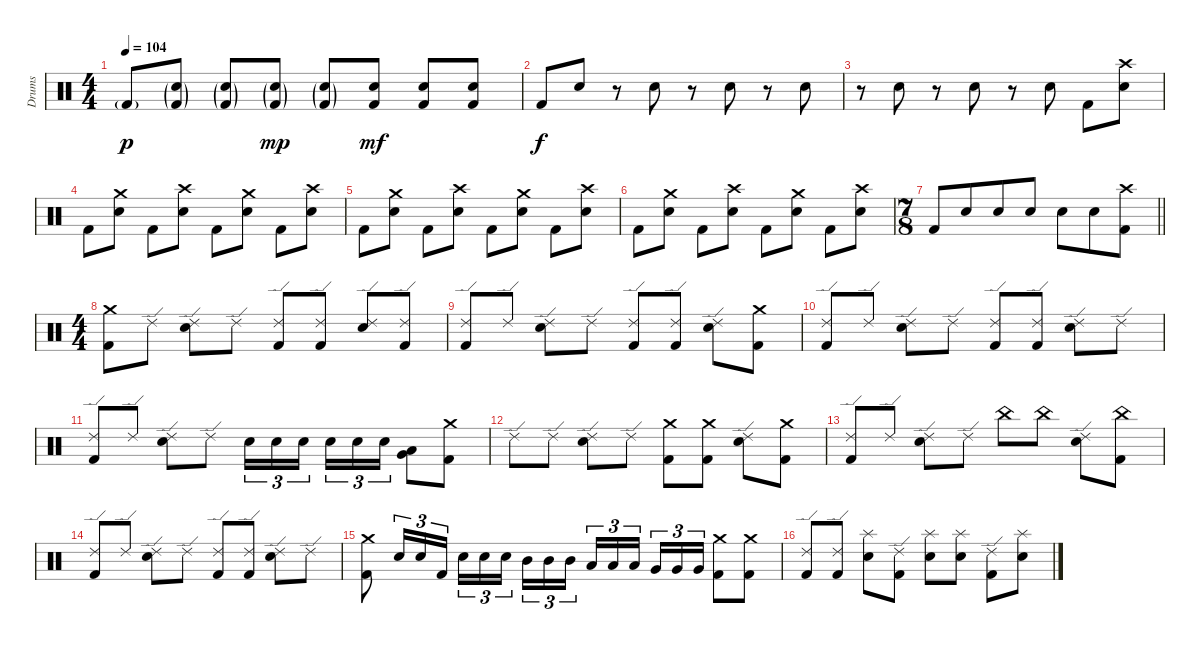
\track ("Drums" "Drums") {instrument percussion}
\staff {score}
\articulation defaults
\ts (4 4)
\tempo 104
\clef neutral
\ks c "Kick (hit) 2"{g}.8{dy p}
("Snare (hit) 2"{g} "Kick (hit) 2"{g}).8 ("Snare (hit) 2"{g} "Kick (hit) 2"{g}).8 ("Snare (hit) 2"{g} "Kick (hit) 2"{g}).8{dy mp} ("Snare (hit) 2"{g} "Kick (hit) 2"{g}).8 ("Snare (hit) 2" "Kick (hit) 2").8{dy mf} ("Snare (hit) 2" "Kick (hit) 2").8 ("Snare (hit) 2" "Kick (hit) 2").8 |
"Kick (hit) 2".8{dy f} "Snare (hit) 2".8 r.8 "Snare (hit) 2".8 r.8 "Snare (hit) 2".8 r.8 "Snare (hit) 2".8 |
r.8 "Snare (hit) 2".8 r.8 "Snare (hit) 2".8 r.8 "Snare (hit) 2".8 "Kick (hit) 2".8 ("Crash high (hit)" "Snare (hit) 2").8 |
"Kick (hit) 2".8 ("Crash medium (hit)" "Snare (hit) 2").8 "Kick (hit) 2".8 ("Crash high (hit)" "Snare (hit) 2").8 "Kick (hit) 2".8 ("Crash medium (hit)" "Snare (hit) 2").8 "Kick (hit) 2".8 ("Crash high (hit)" "Snare (hit) 2").8 |
"Kick (hit) 2".8 ("Crash medium (hit)" "Snare (hit) 2").8 "Kick (hit) 2".8 ("Crash high (hit)" "Snare (hit) 2").8 "Kick (hit) 2".8 ("Crash medium (hit)" "Snare (hit) 2").8 "Kick (hit) 2".8 ("Crash high (hit)" "Snare (hit) 2").8 |
"Kick (hit) 2".8 ("Crash medium (hit)" "Snare (hit) 2").8 "Kick (hit) 2".8 ("Crash high (hit)" "Snare (hit) 2").8 "Kick (hit) 2".8 ("Crash medium (hit)" "Snare (hit) 2").8 "Kick (hit) 2".8 ("Crash high (hit)" "Snare (hit) 2").8 |
\ts (7 8)
\barLineRight lightlight "Kick (hit) 2".8 "Snare (hit) 2".8 "Snare (hit) 2".8 "Snare (hit) 2".8 "Snare (hit) 2".8 "Snare (hit) 2".8
("Crash high (hit)" "Kick (hit) 2").8 |
\ts (4 4)
\section ("" "")
("Crash medium (hit)" "Kick (hit) 2").8 "Ride (edge) 2".8 ("Ride (edge) 2" "Snare (hit) 2").8 "Ride (edge) 2".8 ("Ride (edge) 2" "Kick (hit) 2").8 ("Ride (edge) 2" "Kick (hit) 2").8 ("Ride (edge) 2" "Snare (hit) 2").8 ("Ride (edge) 2" "Kick (hit) 2").8 |
("Ride (edge) 2" "Kick (hit) 2").8 "Ride (edge) 2".8 ("Ride (edge) 2" "Snare (hit) 2").8 "Ride (edge) 2".8 ("Ride (edge) 2" "Kick (hit) 2").8 ("Ride (edge) 2" "Kick (hit) 2").8 ("Ride (edge) 2" "Snare (hit) 2").8 ("Crash medium (hit)" "Kick (hit) 2").8 |
("Ride (edge) 2" "Kick (hit) 2").8 "Ride (edge) 2".8 ("Ride (edge) 2" "Snare (hit) 2").8 "Ride (edge) 2".8 ("Ride (edge) 2" "Kick (hit) 2").8 ("Ride (edge) 2" "Kick (hit) 2").8 ("Ride (edge) 2" "Snare (hit) 2").8 "Ride (edge) 2".8 |
("Ride (edge) 2" "Kick (hit) 2").8 "Ride (edge) 2".8 ("Ride (edge) 2" "Snare (hit) 2").8 "Ride (edge) 2".8 "Snare (hit) 2".16{tu (3 2)} "Snare (hit) 2".16{tu (3 2)} "Snare (hit) 2".16{tu (3 2) beam splitsecondary} "Snare (hit) 2".16{tu (3 2)} "Snare (hit) 2".16{tu (3 2)} "Snare (hit) 2".16{tu (3 2)} ("Low Tom (hit)" "Very Low Tom (hit)").8 ("Crash medium (hit)" "Kick (hit) 2").8 |
"Ride (edge) 2".8 "Ride (edge) 2".8 ("Ride (edge) 2" "Snare (hit) 2").8 "Ride (edge) 2".8 ("Crash medium (hit)" "Kick (hit) 2").8 ("Crash medium (hit)" "Kick (hit) 2").8 ("Ride (edge) 2" "Snare (hit) 2").8 ("Crash medium (hit)" "Kick (hit) 2").8 |
("Ride (edge) 2" "Kick (hit) 2").8 "Ride (edge) 2".8 ("Ride (edge) 2" "Snare (hit) 2").8 "Ride (edge) 2".8 "China (hit)".8 "China (hit)".8 ("Ride (edge) 2" "Snare (hit) 2").8 ("China (hit)" "Kick (hit) 2").8 |
("Ride (edge) 2" "Kick (hit) 2").8 "Ride (edge) 2".8 ("Ride (edge) 2" "Snare (hit) 2").8 "Ride (edge) 2".8 ("Ride (edge) 2" "Kick (hit) 2").8 ("Ride (edge) 2" "Kick (hit) 2").8 ("Ride (edge) 2" "Snare (hit) 2").8 "Ride (edge) 2".8 |
("Crash medium (hit)" "Kick (hit) 2").8 "Snare (hit) 2".16{tu (3 2)} "Snare (hit) 2".16{tu (3 2)} "Kick (hit) 2".16{tu (3 2)} "Snare (hit) 2".16{tu (3 2)} "Snare (hit) 2".16{tu (3 2)} "Snare (hit) 2".16{tu (3 2) beam splitsecondary} "Mid Tom (hit)".16{tu (3 2)} "Mid Tom (hit)".16{tu (3 2)} "Mid Tom (hit)".16{tu (3 2)} "Low Tom (hit)".16{tu (3 2)} "Low Tom (hit)".16{tu (3 2)} "Low Tom (hit)".16{tu (3 2) beam splitsecondary} "Very Low Tom (hit)".16{tu (3 2)} "Very Low Tom (hit)".16{tu (3 2)} "Very Low Tom (hit)".16{tu (3 2)} ("Crash medium (hit)" "Kick (hit) 2").8 ("Crash medium (hit)" "Kick (hit) 2").8 |
("Ride (edge) 2" "Kick (hit) 2").8 ("Ride (edge) 2" "Kick (hit) 2").8 ("Splash (hit)" "Snare (hit) 2").8 ("Ride (edge) 2" "Kick (hit) 2").8 ("Splash (hit)" "Snare (hit) 2").8 ("Splash (hit)" "Snare (hit) 2").8 ("Ride (edge) 2" "Kick (hit) 2").8 ("Splash (hit)" "Snare (hit) 2").8
